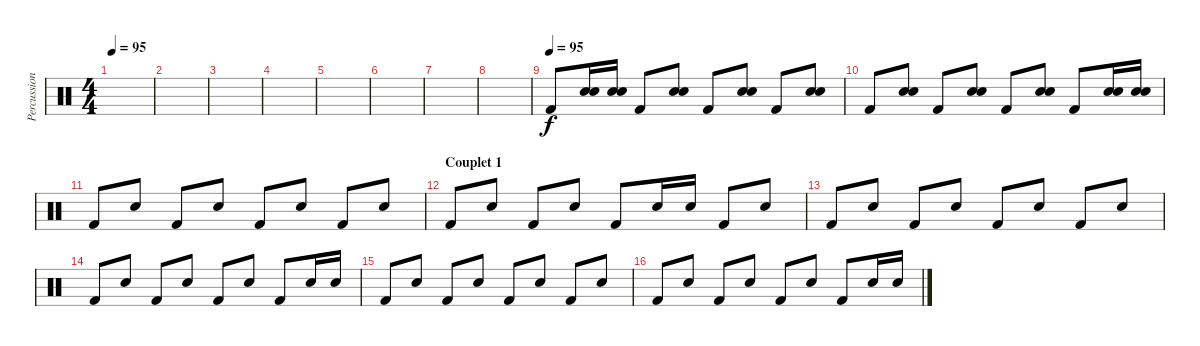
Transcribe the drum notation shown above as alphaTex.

\track ("Percussions" "Percussion") {instrument percussion}
\staff {score}
\articulation defaults
\ts (4 4)
\tempo 95
\tempo 70
\tempo 95
\clef neutral
\ks c
|
|
|
|
|
|
|
|
\tempo (95)
"Kick (hit) 2".8 ("Snare (hit) 2" "Snare (hit) 2").16 ("Snare (hit) 2" "Snare (hit) 2").16 "Kick (hit) 2".8 ("Snare (hit) 2" "Snare (hit) 2").8 "Kick (hit) 2".8 ("Snare (hit) 2" "Snare (hit) 2").8 "Kick (hit) 2".8 ("Snare (hit) 2" "Snare (hit) 2").8 |
"Kick (hit) 2".8 ("Snare (hit) 2" "Snare (hit) 2").8 "Kick (hit) 2".8 ("Snare (hit) 2" "Snare (hit) 2").8 "Kick (hit) 2".8 ("Snare (hit) 2" "Snare (hit) 2").8 "Kick (hit) 2".8 ("Snare (hit) 2" "Snare (hit) 2").16 ("Snare (hit) 2" "Snare (hit) 2").16 |
"Kick (hit) 2".8 "Snare (hit) 2".8 "Kick (hit) 2".8 "Snare (hit) 2".8 "Kick (hit) 2".8 "Snare (hit) 2".8 "Kick (hit) 2".8 "Snare (hit) 2".8 |
\section ("" "Couplet 1")
"Kick (hit) 2".8 "Snare (hit) 2".8 "Kick (hit) 2".8 "Snare (hit) 2".8 "Kick (hit) 2".8 "Snare (hit) 2".16 "Snare (hit) 2".16 "Kick (hit) 2".8 "Snare (hit) 2".8 |
"Kick (hit) 2".8 "Snare (hit) 2".8 "Kick (hit) 2".8 "Snare (hit) 2".8 "Kick (hit) 2".8 "Snare (hit) 2".8 "Kick (hit) 2".8 "Snare (hit) 2".8 |
"Kick (hit) 2".8 "Snare (hit) 2".8 "Kick (hit) 2".8 "Snare (hit) 2".8 "Kick (hit) 2".8 "Snare (hit) 2".8 "Kick (hit) 2".8 "Snare (hit) 2".16 "Snare (hit) 2".16 |
"Kick (hit) 2".8 "Snare (hit) 2".8 "Kick (hit) 2".8 "Snare (hit) 2".8 "Kick (hit) 2".8 "Snare (hit) 2".8 "Kick (hit) 2".8 "Snare (hit) 2".8 |
"Kick (hit) 2".8 "Snare (hit) 2".8 "Kick (hit) 2".8 "Snare (hit) 2".8 "Kick (hit) 2".8 "Snare (hit) 2".8 "Kick (hit) 2".8 "Snare (hit) 2".16 "Snare (hit) 2".16
